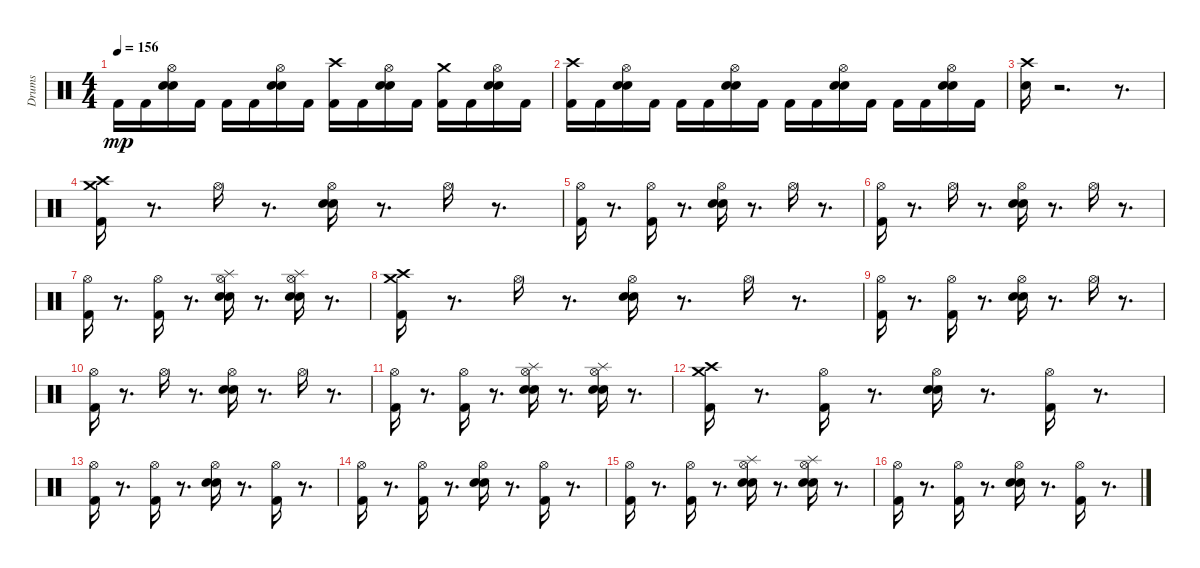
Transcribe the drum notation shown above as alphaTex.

\track ("Drums" "Drums") {instrument percussion}
\staff {score}
\articulation defaults
\ts (4 4)
\tempo 156
\clef neutral
\ks c "Kick (hit) 2".16{dy mp} "Kick (hit) 2".16
("Snare (hit) 2" "Electric Snare (hit)" "Hi-Hat (open)").16 "Kick (hit) 2".16 "Kick (hit) 2".16 "Kick (hit) 2".16 ("Electric Snare (hit)" "Snare (hit) 2" "Hi-Hat (open)").16 "Kick (hit) 2".16 ("Kick (hit) 2" "Crash high (hit)").16 "Kick (hit) 2".16 ("Electric Snare (hit)" "Snare (hit) 2" "Hi-Hat (open)").16 "Kick (hit) 2".16 ("Crash medium (hit)" "Kick (hit) 2").16 "Kick (hit) 2".16 ("Electric Snare (hit)" "Snare (hit) 2" "Hi-Hat (open)").16 "Kick (hit) 2".16 |
("Crash high (hit)" "Kick (hit) 2").16 "Kick (hit) 2".16 ("Hi-Hat (open)" "Electric Snare (hit)" "Snare (hit) 2").16 "Kick (hit) 2".16 "Kick (hit) 2".16 "Kick (hit) 2".16 ("Snare (hit) 2" "Electric Snare (hit)" "Hi-Hat (open)").16 "Kick (hit) 2".16 "Kick (hit) 2".16 "Kick (hit) 2".16 ("Hi-Hat (open)" "Electric Snare (hit)" "Snare (hit) 2").16 "Kick (hit) 2".16 "Kick (hit) 2".16 "Kick (hit) 2".16 ("Electric Snare (hit)" "Hi-Hat (open)" "Snare (hit) 2").16 "Kick (hit) 2".16 |
("Crash high (hit)" "Snare (hit) 2").16 r.2{d} r.8{d} |
("Crash high (hit)" "Kick (hit) 2" "Crash medium (hit)").16 r.8{d} "Hi-Hat (open)".16 r.8{d} ("Electric Snare (hit)" "Snare (hit) 2" "Hi-Hat (open)").16 r.8{d} "Hi-Hat (open)".16 r.8{d} |
("Hi-Hat (open)" "Kick (hit) 2").16 r.8{d} ("Kick (hit) 2" "Hi-Hat (open)").16 r.8{d} ("Electric Snare (hit)" "Snare (hit) 2" "Hi-Hat (open)").16 r.8{d} "Hi-Hat (open)".16 r.8{d} |
("Kick (hit) 2" "Hi-Hat (open)").16 r.8{d} "Hi-Hat (open)".16 r.8{d} ("Hi-Hat (open)" "Snare (hit) 2" "Electric Snare (hit)").16 r.8{d} "Hi-Hat (open)".16 r.8{d} |
("Hi-Hat (open)" "Kick (hit) 2").16 r.8{d} ("Kick (hit) 2" "Hi-Hat (open)").16 r.8{d} ("Splash (hit)" "Snare (hit) 2" "Hi-Hat (open)" "Electric Snare (hit)").16 r.8{d} ("Splash (hit)" "Electric Snare (hit)" "Hi-Hat (open)" "Snare (hit) 2").16 r.8{d} |
("Crash medium (hit)" "Crash high (hit)" "Kick (hit) 2").16 r.8{d} "Hi-Hat (open)".16 r.8{d} ("Hi-Hat (open)" "Electric Snare (hit)" "Snare (hit) 2").16 r.8{d} "Hi-Hat (open)".16 r.8{d} |
("Kick (hit) 2" "Hi-Hat (open)").16 r.8{d} ("Kick (hit) 2" "Hi-Hat (open)").16 r.8{d} ("Snare (hit) 2" "Hi-Hat (open)" "Electric Snare (hit)").16 r.8{d} "Hi-Hat (open)".16 r.8{d} |
("Hi-Hat (open)" "Kick (hit) 2").16 r.8{d} "Hi-Hat (open)".16 r.8{d} ("Snare (hit) 2" "Hi-Hat (open)" "Electric Snare (hit)").16 r.8{d} "Hi-Hat (open)".16 r.8{d} |
("Hi-Hat (open)" "Kick (hit) 2").16 r.8{d} ("Hi-Hat (open)" "Kick (hit) 2").16 r.8{d} ("Hi-Hat (open)" "Electric Snare (hit)" "Splash (hit)" "Snare (hit) 2").16 r.8{d} ("Electric Snare (hit)" "Hi-Hat (open)" "Snare (hit) 2" "Splash (hit)").16 r.8{d} |
("Crash medium (hit)" "Crash high (hit)" "Kick (hit) 2").16 r.8{d} ("Kick (hit) 2" "Hi-Hat (open)").16 r.8{d} ("Electric Snare (hit)" "Hi-Hat (open)" "Snare (hit) 2").16 r.8{d} ("Kick (hit) 2" "Hi-Hat (open)").16 r.8{d} |
("Kick (hit) 2" "Hi-Hat (open)").16 r.8{d} ("Hi-Hat (open)" "Kick (hit) 2").16 r.8{d} ("Snare (hit) 2" "Hi-Hat (open)" "Electric Snare (hit)").16 r.8{d} ("Hi-Hat (open)" "Kick (hit) 2").16 r.8{d} |
("Kick (hit) 2" "Hi-Hat (open)").16 r.8{d} ("Hi-Hat (open)" "Kick (hit) 2").16 r.8{d} ("Electric Snare (hit)" "Snare (hit) 2" "Hi-Hat (open)").16 r.8{d} ("Kick (hit) 2" "Hi-Hat (open)").16 r.8{d} |
("Kick (hit) 2" "Hi-Hat (open)").16 r.8{d} ("Kick (hit) 2" "Hi-Hat (open)").16 r.8{d} ("Snare (hit) 2" "Splash (hit)" "Electric Snare (hit)" "Hi-Hat (open)").16 r.8{d} ("Hi-Hat (open)" "Electric Snare (hit)" "Snare (hit) 2" "Splash (hit)").16 r.8{d} |
("Kick (hit) 2" "Hi-Hat (open)").16 r.8{d} ("Kick (hit) 2" "Hi-Hat (open)").16 r.8{d} ("Electric Snare (hit)" "Snare (hit) 2" "Hi-Hat (open)").16 r.8{d} ("Hi-Hat (open)" "Kick (hit) 2").16 r.8{d}
